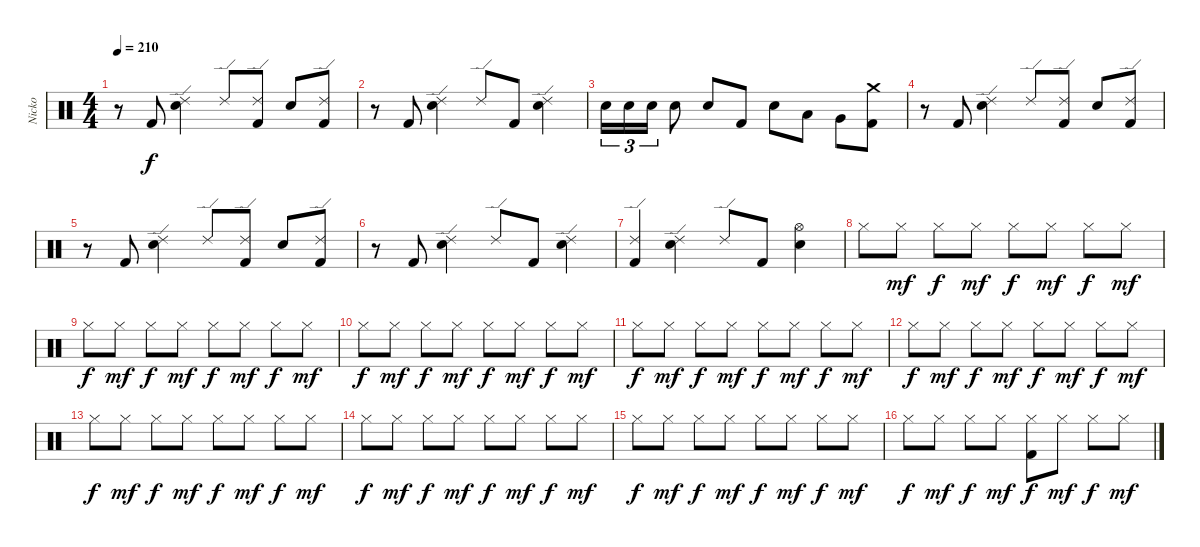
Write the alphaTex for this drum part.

\track ("Nicko" "Nicko") {instrument percussion}
\staff {score}
\articulation defaults
\ts (4 4)
\tempo 210
\clef neutral
\ks c
r.8{dy f} "Kick (hit) 2".8 ("Ride (edge) 2" "Electric Snare (hit)").4 "Ride (edge) 2".8 ("Ride (edge) 2" "Kick (hit) 2").8 "Electric Snare (hit)".8 ("Ride (edge) 2" "Kick (hit) 2").8 |
r.8 "Kick (hit) 2".8 ("Ride (edge) 2" "Electric Snare (hit)").4 "Ride (edge) 2".8 "Kick (hit) 2".8 ("Ride (edge) 2" "Electric Snare (hit)").4 |
"Electric Snare (hit)".16{tu (3 2)} "Electric Snare (hit)".16{tu (3 2)} "Electric Snare (hit)".16{tu (3 2)} "Electric Snare (hit)".8 "Electric Snare (hit)".8 "Kick (hit) 2".8 "Electric Snare (hit)".8 "Low Tom (hit)".8 "Very Low Tom (hit)".8 ("Crash medium (hit)" "Kick (hit) 2").8 |
r.8 "Kick (hit) 2".8 ("Ride (edge) 2" "Electric Snare (hit)").4 "Ride (edge) 2".8 ("Ride (edge) 2" "Kick (hit) 2").8 "Electric Snare (hit)".8 ("Ride (edge) 2" "Kick (hit) 2").8 |
r.8 "Kick (hit) 2".8 ("Ride (edge) 2" "Electric Snare (hit)").4 "Ride (edge) 2".8 ("Ride (edge) 2" "Kick (hit) 2").8 "Electric Snare (hit)".8 ("Ride (edge) 2" "Kick (hit) 2").8 |
r.8 "Kick (hit) 2".8 ("Ride (edge) 2" "Electric Snare (hit)").4 "Ride (edge) 2".8 "Kick (hit) 2".8 ("Ride (edge) 2" "Electric Snare (hit)").4 |
("Ride (edge) 2" "Kick (hit) 2").4 ("Ride (edge) 2" "Electric Snare (hit)").4 "Ride (edge) 2".8 "Kick (hit) 2".8 ("Hi-Hat (open)" "Electric Snare (hit)").4 |
"Hi-Hat (closed)".8 "Hi-Hat (closed)".8{dy mf} "Hi-Hat (closed)".8{dy f} "Hi-Hat (closed)".8{dy mf} "Hi-Hat (closed)".8{dy f} "Hi-Hat (closed)".8{dy mf} "Hi-Hat (closed)".8{dy f} "Hi-Hat (closed)".8{dy mf} |
"Hi-Hat (closed)".8{dy f} "Hi-Hat (closed)".8{dy mf} "Hi-Hat (closed)".8{dy f} "Hi-Hat (closed)".8{dy mf} "Hi-Hat (closed)".8{dy f} "Hi-Hat (closed)".8{dy mf} "Hi-Hat (closed)".8{dy f} "Hi-Hat (closed)".8{dy mf} |
"Hi-Hat (closed)".8{dy f} "Hi-Hat (closed)".8{dy mf} "Hi-Hat (closed)".8{dy f} "Hi-Hat (closed)".8{dy mf} "Hi-Hat (closed)".8{dy f} "Hi-Hat (closed)".8{dy mf} "Hi-Hat (closed)".8{dy f} "Hi-Hat (closed)".8{dy mf} |
"Hi-Hat (closed)".8{dy f} "Hi-Hat (closed)".8{dy mf} "Hi-Hat (closed)".8{dy f} "Hi-Hat (closed)".8{dy mf} "Hi-Hat (closed)".8{dy f} "Hi-Hat (closed)".8{dy mf} "Hi-Hat (closed)".8{dy f} "Hi-Hat (closed)".8{dy mf} |
"Hi-Hat (closed)".8{dy f} "Hi-Hat (closed)".8{dy mf} "Hi-Hat (closed)".8{dy f} "Hi-Hat (closed)".8{dy mf} "Hi-Hat (closed)".8{dy f} "Hi-Hat (closed)".8{dy mf} "Hi-Hat (closed)".8{dy f} "Hi-Hat (closed)".8{dy mf} |
"Hi-Hat (closed)".8{dy f} "Hi-Hat (closed)".8{dy mf} "Hi-Hat (closed)".8{dy f} "Hi-Hat (closed)".8{dy mf} "Hi-Hat (closed)".8{dy f} "Hi-Hat (closed)".8{dy mf} "Hi-Hat (closed)".8{dy f} "Hi-Hat (closed)".8{dy mf} |
"Hi-Hat (closed)".8{dy f} "Hi-Hat (closed)".8{dy mf} "Hi-Hat (closed)".8{dy f} "Hi-Hat (closed)".8{dy mf} "Hi-Hat (closed)".8{dy f} "Hi-Hat (closed)".8{dy mf} "Hi-Hat (closed)".8{dy f} "Hi-Hat (closed)".8{dy mf} |
"Hi-Hat (closed)".8{dy f} "Hi-Hat (closed)".8{dy mf} "Hi-Hat (closed)".8{dy f} "Hi-Hat (closed)".8{dy mf} "Hi-Hat (closed)".8{dy f} "Hi-Hat (closed)".8{dy mf} "Hi-Hat (closed)".8{dy f} "Hi-Hat (closed)".8{dy mf} |
"Hi-Hat (closed)".8{dy f} "Hi-Hat (closed)".8{dy mf} "Hi-Hat (closed)".8{dy f} "Hi-Hat (closed)".8{dy mf} ("Hi-Hat (closed)" "Kick (hit) 2").8{dy f} "Hi-Hat (closed)".8{dy mf} "Hi-Hat (closed)".8{dy f} "Hi-Hat (closed)".8{dy mf}
